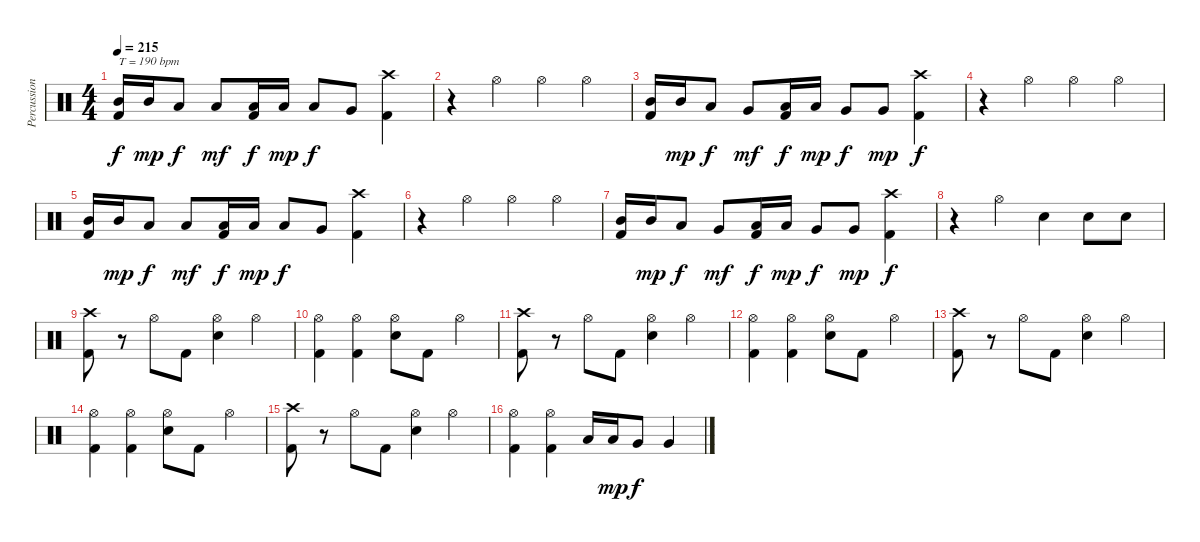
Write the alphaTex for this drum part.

\track ("Percussion" "Percussion") {instrument percussion}
\staff {score}
\articulation defaults
\ts (4 4)
\tempo 215
\tempo 190
\tempo 215
\clef neutral
\ks c
("Mid Tom (hit)" "Kick (hit) 2").16{txt "T = 190 bpm" dy f} "Mid Tom (hit)".16{dy mp} "Low Tom (hit)".8{dy f} "Low Tom (hit)".8{dy mf} ("Low Tom (hit)" "Kick (hit) 2").16{dy f} "Low Tom (hit)".16{dy mp} "Low Tom (hit)".8{dy f} "Very Low Tom (hit)".8 ("Crash high (hit)" "Kick (hit) 2").4 |
r.4 "Hi-Hat (open)".4 "Hi-Hat (open)".4 "Hi-Hat (open)".4 |
("Mid Tom (hit)" "Kick (hit) 2").16 "Mid Tom (hit)".16{dy mp} "Low Tom (hit)".8{dy f} "Very Low Tom (hit)".8{dy mf} ("Low Tom (hit)" "Kick (hit) 2").16{dy f} "Low Tom (hit)".16{dy mp} "Very Low Tom (hit)".8{dy f} "Very Low Tom (hit)".8{dy mp} ("Crash high (hit)" "Kick (hit) 2").4{dy f} |
r.4 "Hi-Hat (open)".4 "Hi-Hat (open)".4 "Hi-Hat (open)".4 |
("Mid Tom (hit)" "Kick (hit) 2").16 "Mid Tom (hit)".16{dy mp} "Low Tom (hit)".8{dy f} "Low Tom (hit)".8{dy mf} ("Low Tom (hit)" "Kick (hit) 2").16{dy f} "Low Tom (hit)".16{dy mp} "Low Tom (hit)".8{dy f} "Very Low Tom (hit)".8 ("Crash high (hit)" "Kick (hit) 2").4 |
r.4 "Hi-Hat (open)".4 "Hi-Hat (open)".4 "Hi-Hat (open)".4 |
("Mid Tom (hit)" "Kick (hit) 2").16 "Mid Tom (hit)".16{dy mp} "Low Tom (hit)".8{dy f} "Very Low Tom (hit)".8{dy mf} ("Low Tom (hit)" "Kick (hit) 2").16{dy f} "Low Tom (hit)".16{dy mp} "Very Low Tom (hit)".8{dy f} "Very Low Tom (hit)".8{dy mp} ("Crash high (hit)" "Kick (hit) 2").4{dy f} |
r.4 "Hi-Hat (open)".4 "Electric Snare (hit)".4 "Electric Snare (hit)".8 "Electric Snare (hit)".8 |
("Crash high (hit)" "Kick (hit) 2").8 r.8 "Hi-Hat (open)".8 "Kick (hit) 2".8 ("Hi-Hat (open)" "Electric Snare (hit)").4 "Hi-Hat (open)".4 |
("Hi-Hat (open)" "Kick (hit) 2").4 ("Hi-Hat (open)" "Kick (hit) 2").4 ("Hi-Hat (open)" "Electric Snare (hit)").8 "Kick (hit) 2".8 "Hi-Hat (open)".4 |
("Crash high (hit)" "Kick (hit) 2").8 r.8 "Hi-Hat (open)".8 "Kick (hit) 2".8 ("Hi-Hat (open)" "Electric Snare (hit)").4 "Hi-Hat (open)".4 |
("Hi-Hat (open)" "Kick (hit) 2").4 ("Hi-Hat (open)" "Kick (hit) 2").4 ("Hi-Hat (open)" "Electric Snare (hit)").8 "Kick (hit) 2".8 "Hi-Hat (open)".4 |
("Crash high (hit)" "Kick (hit) 2").8 r.8 "Hi-Hat (open)".8 "Kick (hit) 2".8 ("Hi-Hat (open)" "Electric Snare (hit)").4 "Hi-Hat (open)".4 |
("Hi-Hat (open)" "Kick (hit) 2").4 ("Hi-Hat (open)" "Kick (hit) 2").4 ("Hi-Hat (open)" "Electric Snare (hit)").8 "Kick (hit) 2".8 "Hi-Hat (open)".4 |
("Crash high (hit)" "Kick (hit) 2").8 r.8 "Hi-Hat (open)".8 "Kick (hit) 2".8 ("Hi-Hat (open)" "Electric Snare (hit)").4 "Hi-Hat (open)".4 |
("Hi-Hat (open)" "Kick (hit) 2").4 ("Hi-Hat (open)" "Kick (hit) 2").4 "Low Tom (hit)".16 "Low Tom (hit)".16{dy mp} "Very Low Tom (hit)".8{dy f} "Very Low Tom (hit)".4
